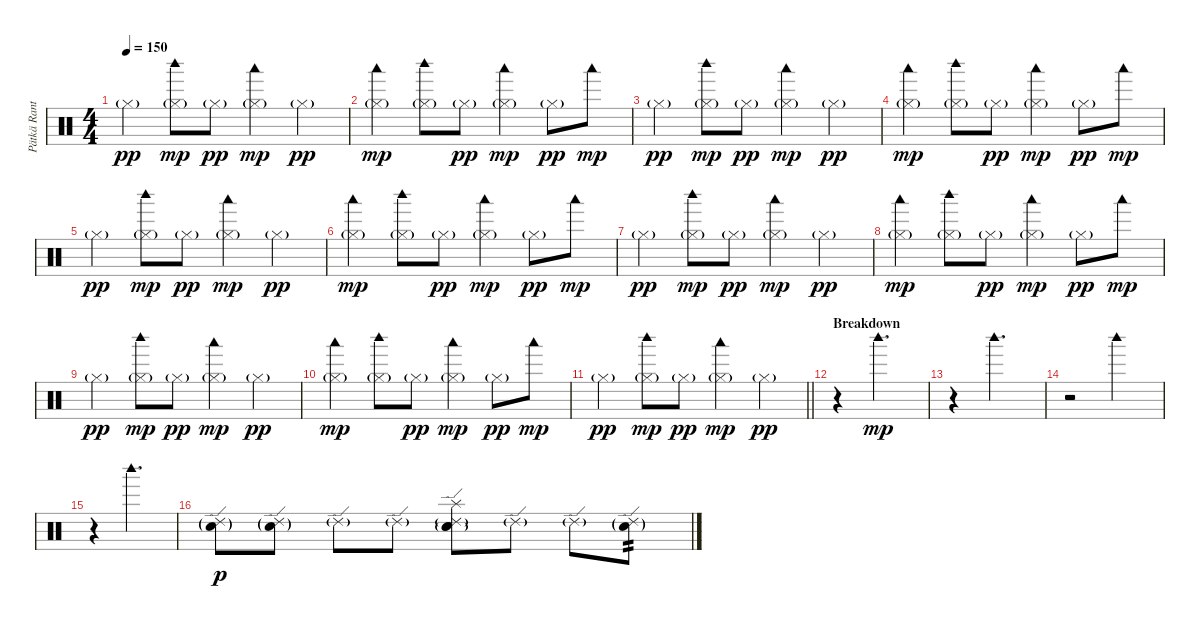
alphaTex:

\track ("Pätkä Rantala (Drums)" "Pätkä Rant") {instrument percussion}
\staff {score}
\articulation defaults
\ts (4 4)
\tempo 150
\clef neutral
\ks c "Hi-Hat (closed)"{g}.4{dy pp}
("Hi-Hat (closed)"{g} "Woodblock high (hit)").8{dy mp} "Hi-Hat (closed)"{g}.8{dy pp} ("Hi-Hat (closed)"{g} "Woodblock low (hit)").4{dy mp} "Hi-Hat (closed)"{g}.4{dy pp} |
("Hi-Hat (closed)"{g} "Woodblock low (hit)").4{dy mp} ("Hi-Hat (closed)"{g} "Woodblock high (hit)").8 "Hi-Hat (closed)"{g}.8{dy pp} ("Hi-Hat (closed)"{g} "Woodblock low (hit)").4{dy mp} "Hi-Hat (closed)"{g}.8{dy pp} "Woodblock low (hit)".8{dy mp} |
"Hi-Hat (closed)"{g}.4{dy pp} ("Hi-Hat (closed)"{g} "Woodblock high (hit)").8{dy mp} "Hi-Hat (closed)"{g}.8{dy pp} ("Hi-Hat (closed)"{g} "Woodblock low (hit)").4{dy mp} "Hi-Hat (closed)"{g}.4{dy pp} |
("Hi-Hat (closed)"{g} "Woodblock low (hit)").4{dy mp} ("Hi-Hat (closed)"{g} "Woodblock high (hit)").8 "Hi-Hat (closed)"{g}.8{dy pp} ("Hi-Hat (closed)"{g} "Woodblock low (hit)").4{dy mp} "Hi-Hat (closed)"{g}.8{dy pp} "Woodblock low (hit)".8{dy mp} |
"Hi-Hat (closed)"{g}.4{dy pp} ("Hi-Hat (closed)"{g} "Woodblock high (hit)").8{dy mp} "Hi-Hat (closed)"{g}.8{dy pp} ("Hi-Hat (closed)"{g} "Woodblock low (hit)").4{dy mp} "Hi-Hat (closed)"{g}.4{dy pp} |
("Hi-Hat (closed)"{g} "Woodblock low (hit)").4{dy mp} ("Hi-Hat (closed)"{g} "Woodblock high (hit)").8 "Hi-Hat (closed)"{g}.8{dy pp} ("Hi-Hat (closed)"{g} "Woodblock low (hit)").4{dy mp} "Hi-Hat (closed)"{g}.8{dy pp} "Woodblock low (hit)".8{dy mp} |
"Hi-Hat (closed)"{g}.4{dy pp} ("Hi-Hat (closed)"{g} "Woodblock high (hit)").8{dy mp} "Hi-Hat (closed)"{g}.8{dy pp} ("Hi-Hat (closed)"{g} "Woodblock low (hit)").4{dy mp} "Hi-Hat (closed)"{g}.4{dy pp} |
("Hi-Hat (closed)"{g} "Woodblock low (hit)").4{dy mp} ("Hi-Hat (closed)"{g} "Woodblock high (hit)").8 "Hi-Hat (closed)"{g}.8{dy pp} ("Hi-Hat (closed)"{g} "Woodblock low (hit)").4{dy mp} "Hi-Hat (closed)"{g}.8{dy pp} "Woodblock low (hit)".8{dy mp} |
"Hi-Hat (closed)"{g}.4{dy pp} ("Hi-Hat (closed)"{g} "Woodblock high (hit)").8{dy mp} "Hi-Hat (closed)"{g}.8{dy pp} ("Hi-Hat (closed)"{g} "Woodblock low (hit)").4{dy mp} "Hi-Hat (closed)"{g}.4{dy pp} |
("Hi-Hat (closed)"{g} "Woodblock low (hit)").4{dy mp} ("Hi-Hat (closed)"{g} "Woodblock high (hit)").8 "Hi-Hat (closed)"{g}.8{dy pp} ("Hi-Hat (closed)"{g} "Woodblock low (hit)").4{dy mp} "Hi-Hat (closed)"{g}.8{dy pp} "Woodblock low (hit)".8{dy mp} |
\barLineRight lightlight "Hi-Hat (closed)"{g}.4{dy pp}
("Hi-Hat (closed)"{g} "Woodblock high (hit)").8{dy mp} "Hi-Hat (closed)"{g}.8{dy pp} ("Hi-Hat (closed)"{g} "Woodblock low (hit)").4{dy mp} "Hi-Hat (closed)"{g}.4{dy pp} |
\section ("" "Breakdown")
r.4 "Woodblock high (hit)".2{d dy mp} |
r.4 "Woodblock high (hit)".2{d} |
r.2 "Woodblock high (hit)".2 |
r.4 "Woodblock high (hit)".2{d} |
("Ride (edge) 2"{g} "Snare (hit) 2"{g}).8{dy p} ("Ride (edge) 2"{g} "Snare (hit) 2"{g}).8 "Ride (edge) 2"{g}.8 "Ride (edge) 2"{g}.8 ("Splash (hit)" "Ride (edge) 2"{g} "Hand Clap (hit)" "Electric Snare (hit)"{g}).8 "Ride (edge) 2"{g}.8 "Ride (edge) 2"{g}.8 ("Ride (edge) 2"{g} "Snare (hit) 2"{g}).8{tp 2}
